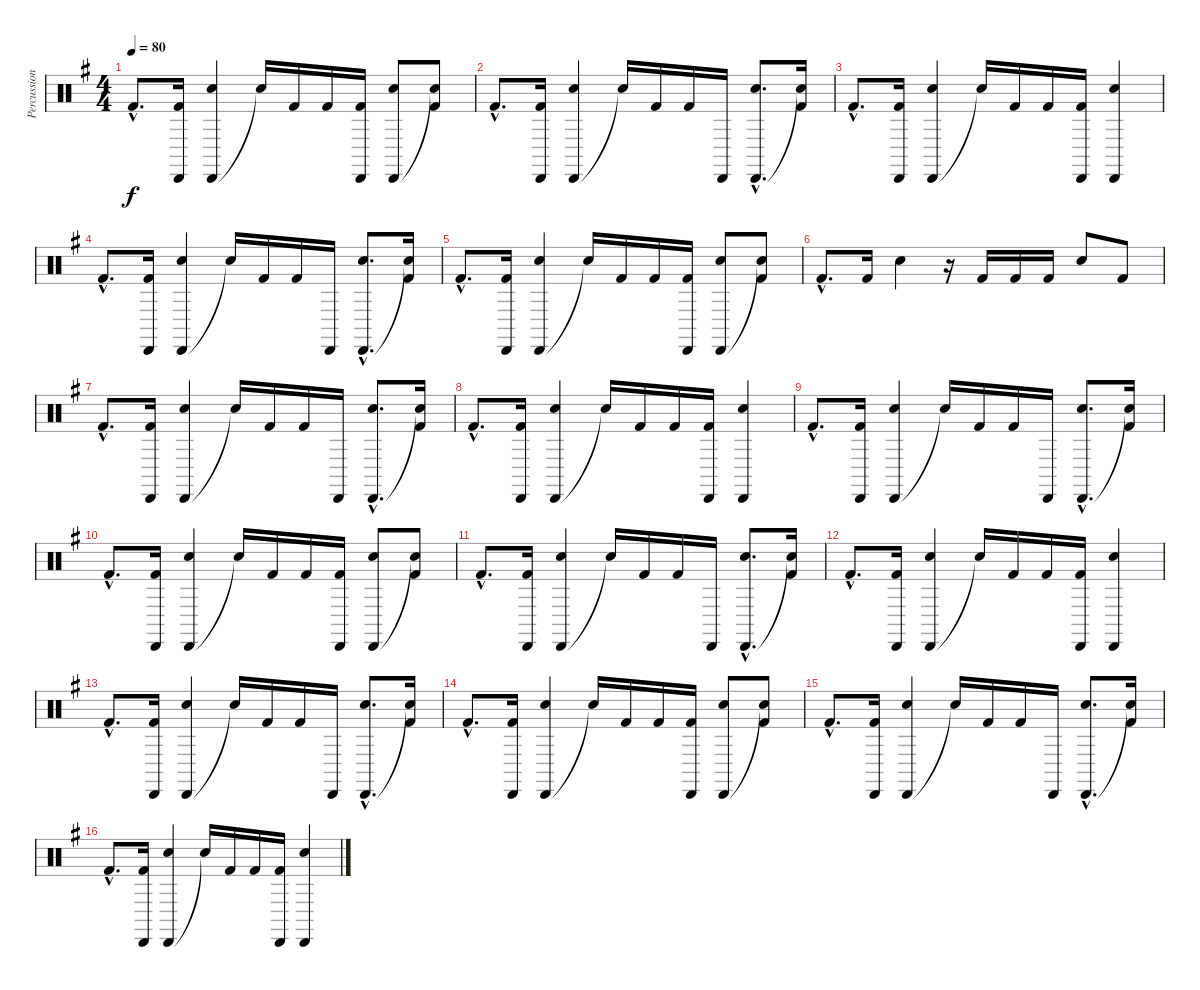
\track ("Percussions" "Percussion") {instrument percussion}
\staff {score}
\articulation defaults
\ts (4 4)
\tempo 80
\clef neutral
\ks g "Kick (hit) 2"{hac}.8{d dy f}
("Cabasa (hit)" "Kick (hit) 2").16 ("Cabasa (hit)" "Electric Snare (hit)").4 "Snare (hit)"{t}.16 "Kick (hit) 2".16 "Kick (hit) 2".16 ("Cabasa (hit)" "Kick (hit) 2").16 ("Cabasa (hit)" "Electric Snare (hit)").8 ("Snare (hit)"{t} "Kick (hit) 2").8 |
"Kick (hit) 2"{hac}.8{d} ("Cabasa (hit)" "Kick (hit) 2").16 ("Cabasa (hit)" "Electric Snare (hit)").4 "Snare (hit)"{t}.16 "Kick (hit) 2".16 "Kick (hit) 2".16 "Cabasa (hit)".16 ("Cabasa (hit)"{hac} "Electric Snare (hit)"{hac}).8{d} ("Snare (hit)"{t} "Kick (hit) 2").16 |
"Kick (hit) 2"{hac}.8{d} ("Cabasa (hit)" "Kick (hit) 2").16 ("Cabasa (hit)" "Electric Snare (hit)").4 "Snare (hit)"{t}.16 "Kick (hit) 2".16 "Kick (hit) 2".16 ("Cabasa (hit)" "Kick (hit) 2").16 ("Cabasa (hit)" "Electric Snare (hit)").4 |
"Kick (hit) 2"{hac}.8{d} ("Cabasa (hit)" "Kick (hit) 2").16 ("Cabasa (hit)" "Electric Snare (hit)").4 "Snare (hit)"{t}.16 "Kick (hit) 2".16 "Kick (hit) 2".16 "Cabasa (hit)".16 ("Cabasa (hit)"{hac} "Electric Snare (hit)"{hac}).8{d} ("Snare (hit)"{t} "Kick (hit) 2").16 |
"Kick (hit) 2"{hac}.8{d} ("Cabasa (hit)" "Kick (hit) 2").16 ("Cabasa (hit)" "Electric Snare (hit)").4 "Snare (hit)"{t}.16 "Kick (hit) 2".16 "Kick (hit) 2".16 ("Cabasa (hit)" "Kick (hit) 2").16 ("Cabasa (hit)" "Electric Snare (hit)").8 ("Snare (hit)"{t} "Kick (hit) 2").8 |
"Kick (hit) 2"{hac}.8{d} "Kick (hit) 2".16 "Electric Snare (hit)".4 r.16 "Kick (hit) 2".16 "Kick (hit) 2".16 "Kick (hit) 2".16 "Electric Snare (hit)".8 "Kick (hit) 2".8 |
"Kick (hit) 2"{hac}.8{d} ("Cabasa (hit)" "Kick (hit) 2").16 ("Cabasa (hit)" "Electric Snare (hit)").4 "Snare (hit)"{t}.16 "Kick (hit) 2".16 "Kick (hit) 2".16 "Cabasa (hit)".16 ("Cabasa (hit)"{hac} "Electric Snare (hit)"{hac}).8{d} ("Snare (hit)"{t} "Kick (hit) 2").16 |
"Kick (hit) 2"{hac}.8{d} ("Cabasa (hit)" "Kick (hit) 2").16 ("Cabasa (hit)" "Electric Snare (hit)").4 "Snare (hit)"{t}.16 "Kick (hit) 2".16 "Kick (hit) 2".16 ("Cabasa (hit)" "Kick (hit) 2").16 ("Cabasa (hit)" "Electric Snare (hit)").4 |
"Kick (hit) 2"{hac}.8{d} ("Cabasa (hit)" "Kick (hit) 2").16 ("Cabasa (hit)" "Electric Snare (hit)").4 "Snare (hit)"{t}.16 "Kick (hit) 2".16 "Kick (hit) 2".16 "Cabasa (hit)".16 ("Cabasa (hit)"{hac} "Electric Snare (hit)"{hac}).8{d} ("Snare (hit)"{t} "Kick (hit) 2").16 |
"Kick (hit) 2"{hac}.8{d} ("Cabasa (hit)" "Kick (hit) 2").16 ("Cabasa (hit)" "Electric Snare (hit)").4 "Snare (hit)"{t}.16 "Kick (hit) 2".16 "Kick (hit) 2".16 ("Cabasa (hit)" "Kick (hit) 2").16 ("Cabasa (hit)" "Electric Snare (hit)").8 ("Snare (hit)"{t} "Kick (hit) 2").8 |
"Kick (hit) 2"{hac}.8{d} ("Cabasa (hit)" "Kick (hit) 2").16 ("Cabasa (hit)" "Electric Snare (hit)").4 "Snare (hit)"{t}.16 "Kick (hit) 2".16 "Kick (hit) 2".16 "Cabasa (hit)".16 ("Cabasa (hit)"{hac} "Electric Snare (hit)"{hac}).8{d} ("Snare (hit)"{t} "Kick (hit) 2").16 |
"Kick (hit) 2"{hac}.8{d} ("Cabasa (hit)" "Kick (hit) 2").16 ("Cabasa (hit)" "Electric Snare (hit)").4 "Snare (hit)"{t}.16 "Kick (hit) 2".16 "Kick (hit) 2".16 ("Cabasa (hit)" "Kick (hit) 2").16 ("Cabasa (hit)" "Electric Snare (hit)").4 |
"Kick (hit) 2"{hac}.8{d} ("Cabasa (hit)" "Kick (hit) 2").16 ("Cabasa (hit)" "Electric Snare (hit)").4 "Snare (hit)"{t}.16 "Kick (hit) 2".16 "Kick (hit) 2".16 "Cabasa (hit)".16 ("Cabasa (hit)"{hac} "Electric Snare (hit)"{hac}).8{d} ("Snare (hit)"{t} "Kick (hit) 2").16 |
"Kick (hit) 2"{hac}.8{d} ("Cabasa (hit)" "Kick (hit) 2").16 ("Cabasa (hit)" "Electric Snare (hit)").4 "Snare (hit)"{t}.16 "Kick (hit) 2".16 "Kick (hit) 2".16 ("Cabasa (hit)" "Kick (hit) 2").16 ("Cabasa (hit)" "Electric Snare (hit)").8 ("Snare (hit)"{t} "Kick (hit) 2").8 |
"Kick (hit) 2"{hac}.8{d} ("Cabasa (hit)" "Kick (hit) 2").16 ("Cabasa (hit)" "Electric Snare (hit)").4 "Snare (hit)"{t}.16 "Kick (hit) 2".16 "Kick (hit) 2".16 "Cabasa (hit)".16 ("Cabasa (hit)"{hac} "Electric Snare (hit)"{hac}).8{d} ("Snare (hit)"{t} "Kick (hit) 2").16 |
"Kick (hit) 2"{hac}.8{d} ("Cabasa (hit)" "Kick (hit) 2").16 ("Cabasa (hit)" "Electric Snare (hit)").4 "Snare (hit)"{t}.16 "Kick (hit) 2".16 "Kick (hit) 2".16 ("Cabasa (hit)" "Kick (hit) 2").16 ("Cabasa (hit)" "Electric Snare (hit)").4
